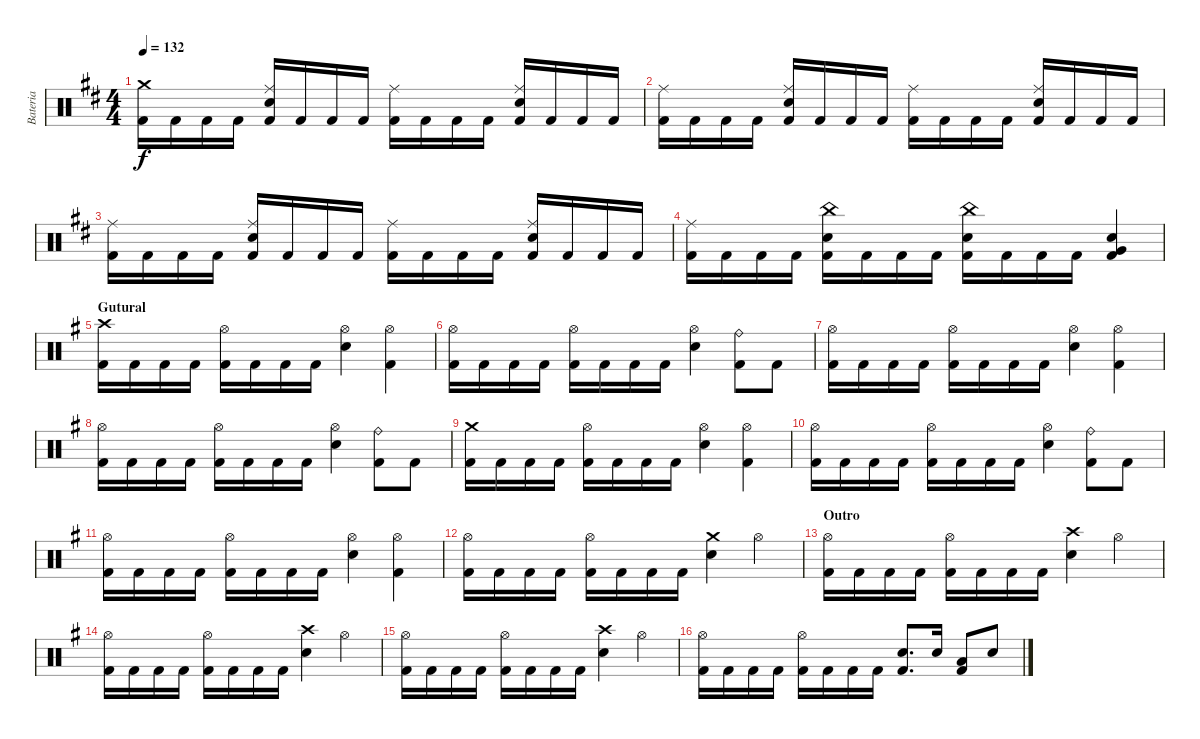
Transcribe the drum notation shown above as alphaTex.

\track ("Bateria" "Bateria") {instrument percussion}
\staff {score}
\articulation defaults
\ts (4 4)
\tempo 132
\clef neutral
\ks bminor
("Crash medium (hit)" "Kick (hit) 2").16{dy f} "Kick (hit) 2".16 "Kick (hit) 2".16 "Kick (hit) 2".16 ("Ride (middle)" "Electric Snare (hit)" "Kick (hit) 2").16 "Kick (hit) 2".16 "Kick (hit) 2".16 "Kick (hit) 2".16 ("Ride (middle)" "Kick (hit) 2").16 "Kick (hit) 2".16 "Kick (hit) 2".16 "Kick (hit) 2".16 ("Ride (middle)" "Electric Snare (hit)" "Kick (hit) 2").16 "Kick (hit) 2".16 "Kick (hit) 2".16 "Kick (hit) 2".16 |
("Ride (middle)" "Kick (hit) 2").16 "Kick (hit) 2".16 "Kick (hit) 2".16 "Kick (hit) 2".16 ("Ride (middle)" "Electric Snare (hit)" "Kick (hit) 2").16 "Kick (hit) 2".16 "Kick (hit) 2".16 "Kick (hit) 2".16 ("Ride (middle)" "Kick (hit) 2").16 "Kick (hit) 2".16 "Kick (hit) 2".16 "Kick (hit) 2".16 ("Ride (middle)" "Electric Snare (hit)" "Kick (hit) 2").16 "Kick (hit) 2".16 "Kick (hit) 2".16 "Kick (hit) 2".16 |
("Ride (middle)" "Kick (hit) 2").16 "Kick (hit) 2".16 "Kick (hit) 2".16 "Kick (hit) 2".16 ("Ride (middle)" "Electric Snare (hit)" "Kick (hit) 2").16 "Kick (hit) 2".16 "Kick (hit) 2".16 "Kick (hit) 2".16 ("Ride (middle)" "Kick (hit) 2").16 "Kick (hit) 2".16 "Kick (hit) 2".16 "Kick (hit) 2".16 ("Ride (middle)" "Electric Snare (hit)" "Kick (hit) 2").16 "Kick (hit) 2".16 "Kick (hit) 2".16 "Kick (hit) 2".16 |
("Ride (middle)" "Kick (hit) 2").16 "Kick (hit) 2".16 "Kick (hit) 2".16 "Kick (hit) 2".16 ("China (hit)" "Electric Snare (hit)" "Kick (hit) 2").16 "Kick (hit) 2".16 "Kick (hit) 2".16 "Kick (hit) 2".16 ("China (hit)" "Electric Snare (hit)" "Kick (hit) 2").16 "Kick (hit) 2".16 "Kick (hit) 2".16 "Kick (hit) 2".16 ("Very Low Tom (hit)" "Electric Snare (hit)" "Kick (hit) 2").4 |
\section ("" "Gutural")
\ks g
("Crash high (hit)" "Kick (hit) 2").16 "Kick (hit) 2".16 "Kick (hit) 2".16 "Kick (hit) 2".16 ("Hi-Hat (open)" "Kick (hit) 2").16 "Kick (hit) 2".16 "Kick (hit) 2".16 "Kick (hit) 2".16 ("Hi-Hat (open)" "Electric Snare (hit)").4 ("Hi-Hat (open)" "Kick (hit) 2").4 |
("Hi-Hat (open)" "Kick (hit) 2").16 "Kick (hit) 2".16 "Kick (hit) 2".16 "Kick (hit) 2".16 ("Hi-Hat (open)" "Kick (hit) 2").16 "Kick (hit) 2".16 "Kick (hit) 2".16 "Kick (hit) 2".16 ("Hi-Hat (open)" "Electric Snare (hit)").4 ("Ride (bell)" "Kick (hit) 2").8 "Kick (hit) 2".8 |
("Hi-Hat (open)" "Kick (hit) 2").16 "Kick (hit) 2".16 "Kick (hit) 2".16 "Kick (hit) 2".16 ("Hi-Hat (open)" "Kick (hit) 2").16 "Kick (hit) 2".16 "Kick (hit) 2".16 "Kick (hit) 2".16 ("Hi-Hat (open)" "Electric Snare (hit)").4 ("Hi-Hat (open)" "Kick (hit) 2").4 |
("Hi-Hat (open)" "Kick (hit) 2").16 "Kick (hit) 2".16 "Kick (hit) 2".16 "Kick (hit) 2".16 ("Hi-Hat (open)" "Kick (hit) 2").16 "Kick (hit) 2".16 "Kick (hit) 2".16 "Kick (hit) 2".16 ("Hi-Hat (open)" "Electric Snare (hit)").4 ("Ride (bell)" "Kick (hit) 2").8 "Kick (hit) 2".8 |
("Crash medium (hit)" "Kick (hit) 2").16 "Kick (hit) 2".16 "Kick (hit) 2".16 "Kick (hit) 2".16 ("Hi-Hat (open)" "Kick (hit) 2").16 "Kick (hit) 2".16 "Kick (hit) 2".16 "Kick (hit) 2".16 ("Hi-Hat (open)" "Electric Snare (hit)").4 ("Hi-Hat (open)" "Kick (hit) 2").4 |
("Hi-Hat (open)" "Kick (hit) 2").16 "Kick (hit) 2".16 "Kick (hit) 2".16 "Kick (hit) 2".16 ("Hi-Hat (open)" "Kick (hit) 2").16 "Kick (hit) 2".16 "Kick (hit) 2".16 "Kick (hit) 2".16 ("Hi-Hat (open)" "Electric Snare (hit)").4 ("Ride (bell)" "Kick (hit) 2").8 "Kick (hit) 2".8 |
("Hi-Hat (open)" "Kick (hit) 2").16 "Kick (hit) 2".16 "Kick (hit) 2".16 "Kick (hit) 2".16 ("Hi-Hat (open)" "Kick (hit) 2").16 "Kick (hit) 2".16 "Kick (hit) 2".16 "Kick (hit) 2".16 ("Hi-Hat (open)" "Electric Snare (hit)").4 ("Hi-Hat (open)" "Kick (hit) 2").4 |
("Hi-Hat (open)" "Kick (hit) 2").16 "Kick (hit) 2".16 "Kick (hit) 2".16 "Kick (hit) 2".16 ("Hi-Hat (open)" "Kick (hit) 2").16 "Kick (hit) 2".16 "Kick (hit) 2".16 "Kick (hit) 2".16 ("Crash medium (hit)" "Electric Snare (hit)").4 "Hi-Hat (open)".4 |
\section ("" "Outro")
("Hi-Hat (open)" "Kick (hit) 2").16 "Kick (hit) 2".16 "Kick (hit) 2".16 "Kick (hit) 2".16 ("Hi-Hat (open)" "Kick (hit) 2").16 "Kick (hit) 2".16 "Kick (hit) 2".16 "Kick (hit) 2".16 ("Crash high (hit)" "Electric Snare (hit)").4 "Hi-Hat (open)".4 |
("Hi-Hat (open)" "Kick (hit) 2").16 "Kick (hit) 2".16 "Kick (hit) 2".16 "Kick (hit) 2".16 ("Hi-Hat (open)" "Kick (hit) 2").16 "Kick (hit) 2".16 "Kick (hit) 2".16 "Kick (hit) 2".16 ("Crash high (hit)" "Electric Snare (hit)").4 "Hi-Hat (open)".4 |
("Hi-Hat (open)" "Kick (hit) 2").16 "Kick (hit) 2".16 "Kick (hit) 2".16 "Kick (hit) 2".16 ("Hi-Hat (open)" "Kick (hit) 2").16 "Kick (hit) 2".16 "Kick (hit) 2".16 "Kick (hit) 2".16 ("Crash high (hit)" "Electric Snare (hit)").4 "Hi-Hat (open)".4 |
("Hi-Hat (open)" "Kick (hit) 2").16 "Kick (hit) 2".16 "Kick (hit) 2".16 "Kick (hit) 2".16 ("Hi-Hat (open)" "Kick (hit) 2").16 "Kick (hit) 2".16 "Kick (hit) 2".16 "Kick (hit) 2".16 ("Electric Snare (hit)" "Kick (hit) 2").8{d} "Electric Snare (hit)".16 ("Low Tom (hit)" "Kick (hit) 2").8 "Electric Snare (hit)".8
